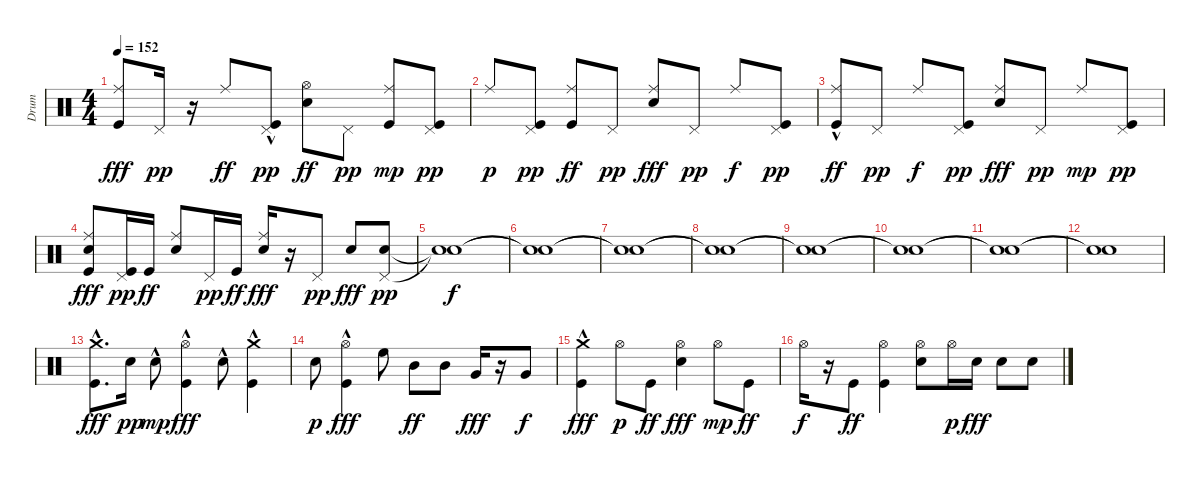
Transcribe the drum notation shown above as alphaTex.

\track ("Drum" "Drum") {instrument percussion}
\staff {score}
\articulation defaults
\ts (4 4)
\tempo 152
\clef neutral
\ks c
("Kick (hit)" "Ride (middle)").8{dy fff} "Pedal Hi-Hat (hit)".16{dy pp} r.16 "Ride (middle)".8{dy ff} ("Kick (hit)"{hac} "Pedal Hi-Hat (hit)").8{dy pp} ("Electric Snare (hit)" "Hi-Hat (open)").8{dy ff} "Pedal Hi-Hat (hit)".8{dy pp} ("Kick (hit)" "Ride (middle)").8{dy mp} ("Kick (hit)" "Pedal Hi-Hat (hit)").8{dy pp} |
"Ride (middle)".8{dy p} ("Kick (hit)" "Pedal Hi-Hat (hit)").8{dy pp} ("Kick (hit)" "Ride (middle)").8{dy ff} "Pedal Hi-Hat (hit)".8{dy pp} ("Electric Snare (hit)" "Ride (middle)").8{dy fff} "Pedal Hi-Hat (hit)".8{dy pp} "Ride (middle)".8{dy f} ("Kick (hit)" "Pedal Hi-Hat (hit)").8{dy pp} |
("Kick (hit)"{hac} "Ride (middle)").8{dy ff} "Pedal Hi-Hat (hit)".8{dy pp} "Ride (middle)".8{dy f} ("Kick (hit)" "Pedal Hi-Hat (hit)").8{dy pp} ("Electric Snare (hit)" "Ride (middle)").8{dy fff} "Pedal Hi-Hat (hit)".8{dy pp} "Ride (middle)".8{dy mp} ("Kick (hit)" "Pedal Hi-Hat (hit)").8{dy pp} |
("Kick (hit)" "Electric Snare (hit)" "Ride (middle)").8{dy fff} ("Kick (hit)" "Pedal Hi-Hat (hit)").16{dy pp} "Kick (hit)".16{dy ff} ("Electric Snare (hit)" "Ride (middle)").8 "Pedal Hi-Hat (hit)".16{dy pp} "Kick (hit)".16{dy ff} ("Electric Snare (hit)" "Ride (middle)").16{dy fff} r.16 "Pedal Hi-Hat (hit)".8{dy pp} "Electric Snare (hit)".8{dy fff} ("Electric Snare (hit)" "Pedal Hi-Hat (hit)").8{dy pp} |
("Snare (hit)"{t} "Snare (hit)"{t}).1{dy f} |
("Snare (hit)"{t} "Snare (hit)"{t}).1 |
("Snare (hit)"{t} "Snare (hit)"{t}).1 |
("Snare (hit)"{t} "Snare (hit)"{t}).1 |
("Snare (hit)"{t} "Snare (hit)"{t}).1 |
("Snare (hit)"{t} "Snare (hit)"{t}).1 |
("Snare (hit)"{t} "Snare (hit)"{t}).1 |
("Snare (hit)"{t} "Snare (hit)"{t}).1 |
("Kick (hit)"{hac} "Crash medium (hit)"{hac}).8{d dy fff} "Electric Snare (hit)".16{dy pp} "Electric Snare (hit)"{hac}.8{dy mp} ("Kick (hit)" "Hi-Hat (open)"{hac}).4{dy fff} "Electric Snare (hit)"{hac}.8 ("Kick (hit)"{hac} "Crash medium (hit)").4 |
"Electric Snare (hit)".8{dy p} ("Kick (hit)"{hac} "Hi-Hat (open)").4{dy fff} "High Floor Tom (hit)".8 "Mid Tom (hit)".8{dy ff} "Mid Tom (hit)".8 "Very Low Tom (hit)".16{dy fff} r.16 "Very Low Tom (hit)".8{dy f} |
("Kick (hit)"{hac} "Crash medium (hit)").4{dy fff} "Hi-Hat (open)".8{dy p} "Kick (hit)".8{dy ff} ("Electric Snare (hit)" "Hi-Hat (open)").4{dy fff} "Hi-Hat (open)".8{dy mp} "Kick (hit)".8{dy ff} |
"Hi-Hat (open)".16{dy f} r.16 "Kick (hit)".8{dy ff} ("Kick (hit)" "Hi-Hat (open)").4 ("Electric Snare (hit)" "Hi-Hat (open)").8 "Hi-Hat (open)".16{dy p} "Electric Snare (hit)".16{dy fff} "Electric Snare (hit)".8 "Electric Snare (hit)".8
